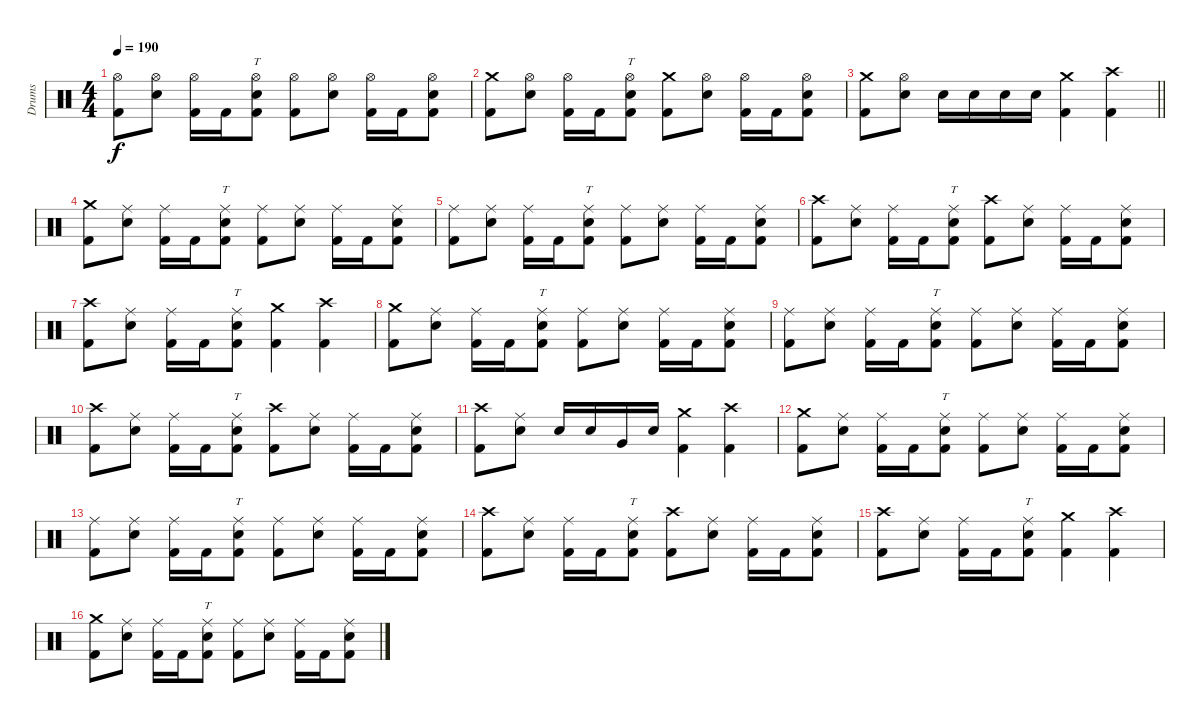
\track ("Drums" "Drums") {instrument percussion}
\staff {score}
\articulation defaults
\ts (4 4)
\tempo 190
\clef neutral
\ks c
("Hi-Hat (open)" "Kick (hit) 2").8{dy f} ("Hi-Hat (open)" "Electric Snare (hit)").8 ("Hi-Hat (open)" "Kick (hit) 2").16 "Kick (hit) 2".16 ("Hi-Hat (open)" "Electric Snare (hit)" "Kick (hit) 2").8{tt} ("Hi-Hat (open)" "Kick (hit) 2").8 ("Hi-Hat (open)" "Electric Snare (hit)").8 ("Hi-Hat (open)" "Kick (hit) 2").16 "Kick (hit) 2".16 ("Hi-Hat (open)" "Electric Snare (hit)" "Kick (hit) 2").8 |
("Crash medium (hit)" "Kick (hit) 2").8 ("Hi-Hat (open)" "Electric Snare (hit)").8 ("Hi-Hat (open)" "Kick (hit) 2").16 "Kick (hit) 2".16 ("Hi-Hat (open)" "Electric Snare (hit)" "Kick (hit) 2").8{tt} ("Crash medium (hit)" "Kick (hit) 2").8 ("Hi-Hat (open)" "Electric Snare (hit)").8 ("Hi-Hat (open)" "Kick (hit) 2").16 "Kick (hit) 2".16 ("Hi-Hat (open)" "Electric Snare (hit)" "Kick (hit) 2").8 |
\barLineRight lightlight
("Crash medium (hit)" "Kick (hit) 2").8 ("Hi-Hat (open)" "Electric Snare (hit)").8 "Electric Snare (hit)".16 "Electric Snare (hit)".16 "Electric Snare (hit)".16 "Electric Snare (hit)".16 ("Crash medium (hit)" "Kick (hit) 2").4 ("Crash high (hit)" "Kick (hit) 2").4 |
("Crash medium (hit)" "Kick (hit) 2").8 ("Ride (middle)" "Electric Snare (hit)").8 ("Ride (middle)" "Kick (hit) 2").16 "Kick (hit) 2".16 ("Ride (middle)" "Electric Snare (hit)" "Kick (hit) 2").8{tt} ("Ride (middle)" "Kick (hit) 2").8 ("Ride (middle)" "Electric Snare (hit)").8 ("Ride (middle)" "Kick (hit) 2").16 "Kick (hit) 2".16 ("Ride (middle)" "Electric Snare (hit)" "Kick (hit) 2").8 |
("Ride (middle)" "Kick (hit) 2").8 ("Ride (middle)" "Electric Snare (hit)").8 ("Ride (middle)" "Kick (hit) 2").16 "Kick (hit) 2".16 ("Ride (middle)" "Electric Snare (hit)" "Kick (hit) 2").8{tt} ("Ride (middle)" "Kick (hit) 2").8 ("Ride (middle)" "Electric Snare (hit)").8 ("Ride (middle)" "Kick (hit) 2").16 "Kick (hit) 2".16 ("Ride (middle)" "Electric Snare (hit)" "Kick (hit) 2").8 |
("Crash high (hit)" "Kick (hit) 2").8 ("Ride (middle)" "Electric Snare (hit)").8 ("Ride (middle)" "Kick (hit) 2").16 "Kick (hit) 2".16 ("Ride (middle)" "Electric Snare (hit)" "Kick (hit) 2").8{tt} ("Crash high (hit)" "Kick (hit) 2").8 ("Ride (middle)" "Electric Snare (hit)").8 ("Ride (middle)" "Kick (hit) 2").16 "Kick (hit) 2".16 ("Ride (middle)" "Electric Snare (hit)" "Kick (hit) 2").8 |
("Crash high (hit)" "Kick (hit) 2").8 ("Ride (middle)" "Electric Snare (hit)").8 ("Ride (middle)" "Kick (hit) 2").16 "Kick (hit) 2".16 ("Ride (middle)" "Electric Snare (hit)" "Kick (hit) 2").8{tt} ("Crash medium (hit)" "Kick (hit) 2").4 ("Crash high (hit)" "Kick (hit) 2").4 |
("Crash medium (hit)" "Kick (hit) 2").8 ("Ride (middle)" "Electric Snare (hit)").8 ("Ride (middle)" "Kick (hit) 2").16 "Kick (hit) 2".16 ("Ride (middle)" "Electric Snare (hit)" "Kick (hit) 2").8{tt} ("Ride (middle)" "Kick (hit) 2").8 ("Ride (middle)" "Electric Snare (hit)").8 ("Ride (middle)" "Kick (hit) 2").16 "Kick (hit) 2".16 ("Ride (middle)" "Electric Snare (hit)" "Kick (hit) 2").8 |
("Ride (middle)" "Kick (hit) 2").8 ("Ride (middle)" "Electric Snare (hit)").8 ("Ride (middle)" "Kick (hit) 2").16 "Kick (hit) 2".16 ("Ride (middle)" "Electric Snare (hit)" "Kick (hit) 2").8{tt} ("Ride (middle)" "Kick (hit) 2").8 ("Ride (middle)" "Electric Snare (hit)").8 ("Ride (middle)" "Kick (hit) 2").16 "Kick (hit) 2".16 ("Ride (middle)" "Electric Snare (hit)" "Kick (hit) 2").8 |
("Crash high (hit)" "Kick (hit) 2").8 ("Ride (middle)" "Electric Snare (hit)").8 ("Ride (middle)" "Kick (hit) 2").16 "Kick (hit) 2".16 ("Ride (middle)" "Electric Snare (hit)" "Kick (hit) 2").8{tt} ("Crash high (hit)" "Kick (hit) 2").8 ("Ride (middle)" "Electric Snare (hit)").8 ("Ride (middle)" "Kick (hit) 2").16 "Kick (hit) 2".16 ("Ride (middle)" "Electric Snare (hit)" "Kick (hit) 2").8 |
("Crash high (hit)" "Kick (hit) 2").8 ("Ride (middle)" "Electric Snare (hit)").8 "Electric Snare (hit)".16 "Electric Snare (hit)".16 "Very Low Tom (hit)".16 "Electric Snare (hit)".16 ("Crash medium (hit)" "Kick (hit) 2").4 ("Crash high (hit)" "Kick (hit) 2").4 |
("Crash medium (hit)" "Kick (hit) 2").8 ("Ride (middle)" "Electric Snare (hit)").8 ("Ride (middle)" "Kick (hit) 2").16 "Kick (hit) 2".16 ("Ride (middle)" "Electric Snare (hit)" "Kick (hit) 2").8{tt} ("Ride (middle)" "Kick (hit) 2").8 ("Ride (middle)" "Electric Snare (hit)").8 ("Ride (middle)" "Kick (hit) 2").16 "Kick (hit) 2".16 ("Ride (middle)" "Electric Snare (hit)" "Kick (hit) 2").8 |
("Ride (middle)" "Kick (hit) 2").8 ("Ride (middle)" "Electric Snare (hit)").8 ("Ride (middle)" "Kick (hit) 2").16 "Kick (hit) 2".16 ("Ride (middle)" "Electric Snare (hit)" "Kick (hit) 2").8{tt} ("Ride (middle)" "Kick (hit) 2").8 ("Ride (middle)" "Electric Snare (hit)").8 ("Ride (middle)" "Kick (hit) 2").16 "Kick (hit) 2".16 ("Ride (middle)" "Electric Snare (hit)" "Kick (hit) 2").8 |
("Crash high (hit)" "Kick (hit) 2").8 ("Ride (middle)" "Electric Snare (hit)").8 ("Ride (middle)" "Kick (hit) 2").16 "Kick (hit) 2".16 ("Ride (middle)" "Electric Snare (hit)" "Kick (hit) 2").8{tt} ("Crash high (hit)" "Kick (hit) 2").8 ("Ride (middle)" "Electric Snare (hit)").8 ("Ride (middle)" "Kick (hit) 2").16 "Kick (hit) 2".16 ("Ride (middle)" "Electric Snare (hit)" "Kick (hit) 2").8 |
("Crash high (hit)" "Kick (hit) 2").8 ("Ride (middle)" "Electric Snare (hit)").8 ("Ride (middle)" "Kick (hit) 2").16 "Kick (hit) 2".16 ("Ride (middle)" "Electric Snare (hit)" "Kick (hit) 2").8{tt} ("Crash medium (hit)" "Kick (hit) 2").4 ("Crash high (hit)" "Kick (hit) 2").4 |
("Crash medium (hit)" "Kick (hit) 2").8 ("Ride (middle)" "Electric Snare (hit)").8 ("Ride (middle)" "Kick (hit) 2").16 "Kick (hit) 2".16 ("Ride (middle)" "Electric Snare (hit)" "Kick (hit) 2").8{tt} ("Ride (middle)" "Kick (hit) 2").8 ("Ride (middle)" "Electric Snare (hit)").8 ("Ride (middle)" "Kick (hit) 2").16 "Kick (hit) 2".16 ("Ride (middle)" "Electric Snare (hit)" "Kick (hit) 2").8
